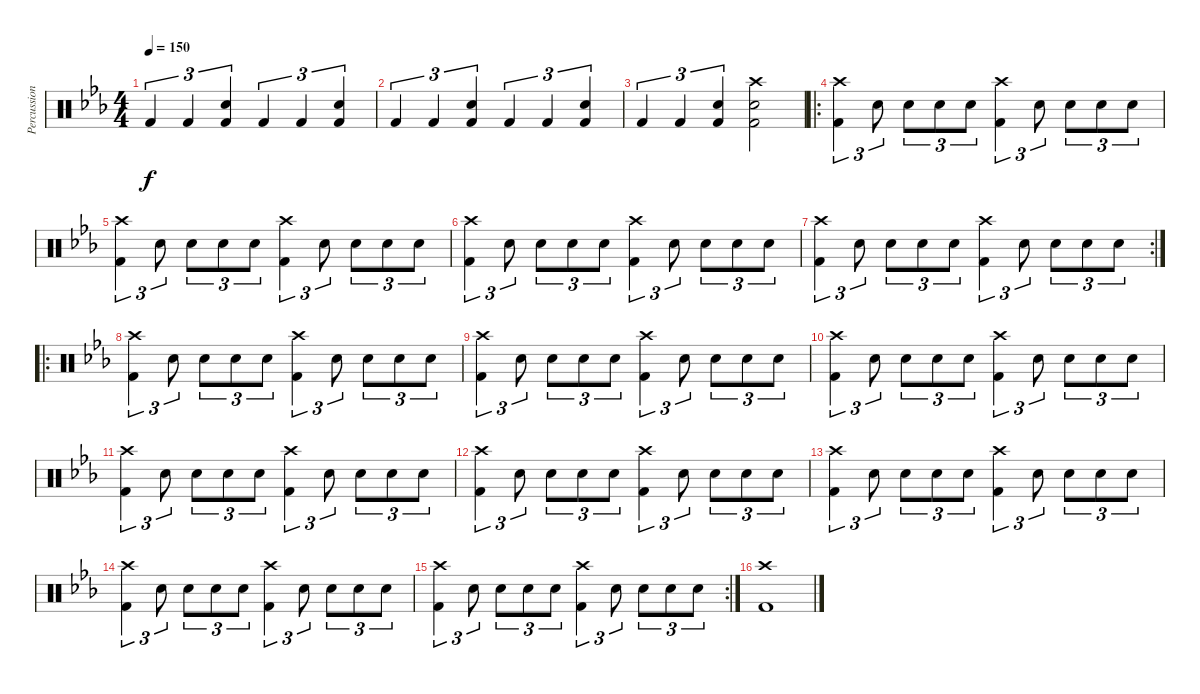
\track ("Percussion" "Percussion") {instrument percussion}
\staff {score}
\articulation defaults
\ts (4 4)
\tempo 150
\clef neutral
\ks cminor "Kick (hit) 2".4{tu (3 2) dy f} "Kick (hit) 2".4{tu (3 2)}
("Snare (hit) 2" "Kick (hit) 2").4{tu (3 2)} "Kick (hit) 2".4{tu (3 2)} "Kick (hit) 2".4{tu (3 2)} ("Snare (hit) 2" "Kick (hit) 2").4{tu (3 2)} |
"Kick (hit) 2".4{tu (3 2)} "Kick (hit) 2".4{tu (3 2)} ("Snare (hit) 2" "Kick (hit) 2").4{tu (3 2)} "Kick (hit) 2".4{tu (3 2)} "Kick (hit) 2".4{tu (3 2)} ("Snare (hit) 2" "Kick (hit) 2").4{tu (3 2)} |
"Kick (hit) 2".4{tu (3 2)} "Kick (hit) 2".4{tu (3 2)} ("Snare (hit) 2" "Kick (hit) 2").4{tu (3 2)} ("Crash high (hit)" "Snare (hit) 2" "Kick (hit) 2").2 |
\ro
("Crash high (hit)" "Kick (hit) 2").4{tu (3 2)} "Snare (hit) 2".8{tu (3 2)} "Snare (hit) 2".8{tu (3 2)} "Snare (hit) 2".8{tu (3 2)} "Snare (hit) 2".8{tu (3 2)} ("Crash high (hit)" "Kick (hit) 2").4{tu (3 2)} "Snare (hit) 2".8{tu (3 2)} "Snare (hit) 2".8{tu (3 2)} "Snare (hit) 2".8{tu (3 2)} "Snare (hit) 2".8{tu (3 2)} |
("Crash high (hit)" "Kick (hit) 2").4{tu (3 2)} "Snare (hit) 2".8{tu (3 2)} "Snare (hit) 2".8{tu (3 2)} "Snare (hit) 2".8{tu (3 2)} "Snare (hit) 2".8{tu (3 2)} ("Crash high (hit)" "Kick (hit) 2").4{tu (3 2)} "Snare (hit) 2".8{tu (3 2)} "Snare (hit) 2".8{tu (3 2)} "Snare (hit) 2".8{tu (3 2)} "Snare (hit) 2".8{tu (3 2)} |
("Crash high (hit)" "Kick (hit) 2").4{tu (3 2)} "Snare (hit) 2".8{tu (3 2)} "Snare (hit) 2".8{tu (3 2)} "Snare (hit) 2".8{tu (3 2)} "Snare (hit) 2".8{tu (3 2)} ("Crash high (hit)" "Kick (hit) 2").4{tu (3 2)} "Snare (hit) 2".8{tu (3 2)} "Snare (hit) 2".8{tu (3 2)} "Snare (hit) 2".8{tu (3 2)} "Snare (hit) 2".8{tu (3 2)} |
\rc 2
("Crash high (hit)" "Kick (hit) 2").4{tu (3 2)} "Snare (hit) 2".8{tu (3 2)} "Snare (hit) 2".8{tu (3 2)} "Snare (hit) 2".8{tu (3 2)} "Snare (hit) 2".8{tu (3 2)} ("Crash high (hit)" "Kick (hit) 2").4{tu (3 2)} "Snare (hit) 2".8{tu (3 2)} "Snare (hit) 2".8{tu (3 2)} "Snare (hit) 2".8{tu (3 2)} "Snare (hit) 2".8{tu (3 2)} |
\ro
("Crash high (hit)" "Kick (hit) 2").4{tu (3 2)} "Snare (hit) 2".8{tu (3 2)} "Snare (hit) 2".8{tu (3 2)} "Snare (hit) 2".8{tu (3 2)} "Snare (hit) 2".8{tu (3 2)} ("Crash high (hit)" "Kick (hit) 2").4{tu (3 2)} "Snare (hit) 2".8{tu (3 2)} "Snare (hit) 2".8{tu (3 2)} "Snare (hit) 2".8{tu (3 2)} "Snare (hit) 2".8{tu (3 2)} |
("Crash high (hit)" "Kick (hit) 2").4{tu (3 2)} "Snare (hit) 2".8{tu (3 2)} "Snare (hit) 2".8{tu (3 2)} "Snare (hit) 2".8{tu (3 2)} "Snare (hit) 2".8{tu (3 2)} ("Crash high (hit)" "Kick (hit) 2").4{tu (3 2)} "Snare (hit) 2".8{tu (3 2)} "Snare (hit) 2".8{tu (3 2)} "Snare (hit) 2".8{tu (3 2)} "Snare (hit) 2".8{tu (3 2)} |
("Crash high (hit)" "Kick (hit) 2").4{tu (3 2)} "Snare (hit) 2".8{tu (3 2)} "Snare (hit) 2".8{tu (3 2)} "Snare (hit) 2".8{tu (3 2)} "Snare (hit) 2".8{tu (3 2)} ("Crash high (hit)" "Kick (hit) 2").4{tu (3 2)} "Snare (hit) 2".8{tu (3 2)} "Snare (hit) 2".8{tu (3 2)} "Snare (hit) 2".8{tu (3 2)} "Snare (hit) 2".8{tu (3 2)} |
("Crash high (hit)" "Kick (hit) 2").4{tu (3 2)} "Snare (hit) 2".8{tu (3 2)} "Snare (hit) 2".8{tu (3 2)} "Snare (hit) 2".8{tu (3 2)} "Snare (hit) 2".8{tu (3 2)} ("Crash high (hit)" "Kick (hit) 2").4{tu (3 2)} "Snare (hit) 2".8{tu (3 2)} "Snare (hit) 2".8{tu (3 2)} "Snare (hit) 2".8{tu (3 2)} "Snare (hit) 2".8{tu (3 2)} |
("Crash high (hit)" "Kick (hit) 2").4{tu (3 2)} "Snare (hit) 2".8{tu (3 2)} "Snare (hit) 2".8{tu (3 2)} "Snare (hit) 2".8{tu (3 2)} "Snare (hit) 2".8{tu (3 2)} ("Crash high (hit)" "Kick (hit) 2").4{tu (3 2)} "Snare (hit) 2".8{tu (3 2)} "Snare (hit) 2".8{tu (3 2)} "Snare (hit) 2".8{tu (3 2)} "Snare (hit) 2".8{tu (3 2)} |
("Crash high (hit)" "Kick (hit) 2").4{tu (3 2)} "Snare (hit) 2".8{tu (3 2)} "Snare (hit) 2".8{tu (3 2)} "Snare (hit) 2".8{tu (3 2)} "Snare (hit) 2".8{tu (3 2)} ("Crash high (hit)" "Kick (hit) 2").4{tu (3 2)} "Snare (hit) 2".8{tu (3 2)} "Snare (hit) 2".8{tu (3 2)} "Snare (hit) 2".8{tu (3 2)} "Snare (hit) 2".8{tu (3 2)} |
("Crash high (hit)" "Kick (hit) 2").4{tu (3 2)} "Snare (hit) 2".8{tu (3 2)} "Snare (hit) 2".8{tu (3 2)} "Snare (hit) 2".8{tu (3 2)} "Snare (hit) 2".8{tu (3 2)} ("Crash high (hit)" "Kick (hit) 2").4{tu (3 2)} "Snare (hit) 2".8{tu (3 2)} "Snare (hit) 2".8{tu (3 2)} "Snare (hit) 2".8{tu (3 2)} "Snare (hit) 2".8{tu (3 2)} |
\rc 2
("Crash high (hit)" "Kick (hit) 2").4{tu (3 2)} "Snare (hit) 2".8{tu (3 2)} "Snare (hit) 2".8{tu (3 2)} "Snare (hit) 2".8{tu (3 2)} "Snare (hit) 2".8{tu (3 2)} ("Crash high (hit)" "Kick (hit) 2").4{tu (3 2)} "Snare (hit) 2".8{tu (3 2)} "Snare (hit) 2".8{tu (3 2)} "Snare (hit) 2".8{tu (3 2)} "Snare (hit) 2".8{tu (3 2)} |
("Crash high (hit)" "Kick (hit) 2").1
